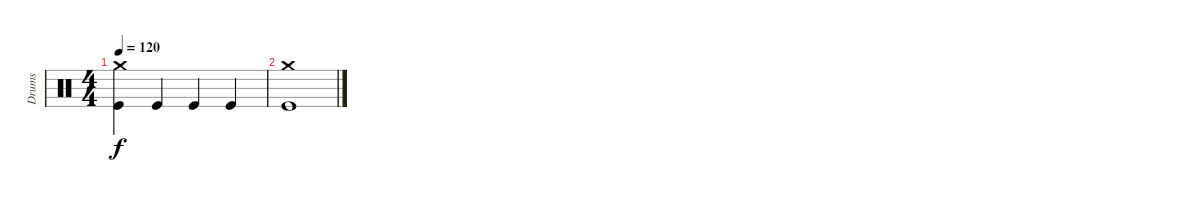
\track ("Drums" "Drums") {instrument percussion}
\staff {score}
\articulation defaults
\ts (4 4)
\tempo 120
\clef neutral
\ks c
("Crash medium (hit)" "Kick (hit)").4{dy f} "Kick (hit)".4 "Kick (hit)".4 "Kick (hit)".4 |
("Crash medium (hit)" "Kick (hit)").1
